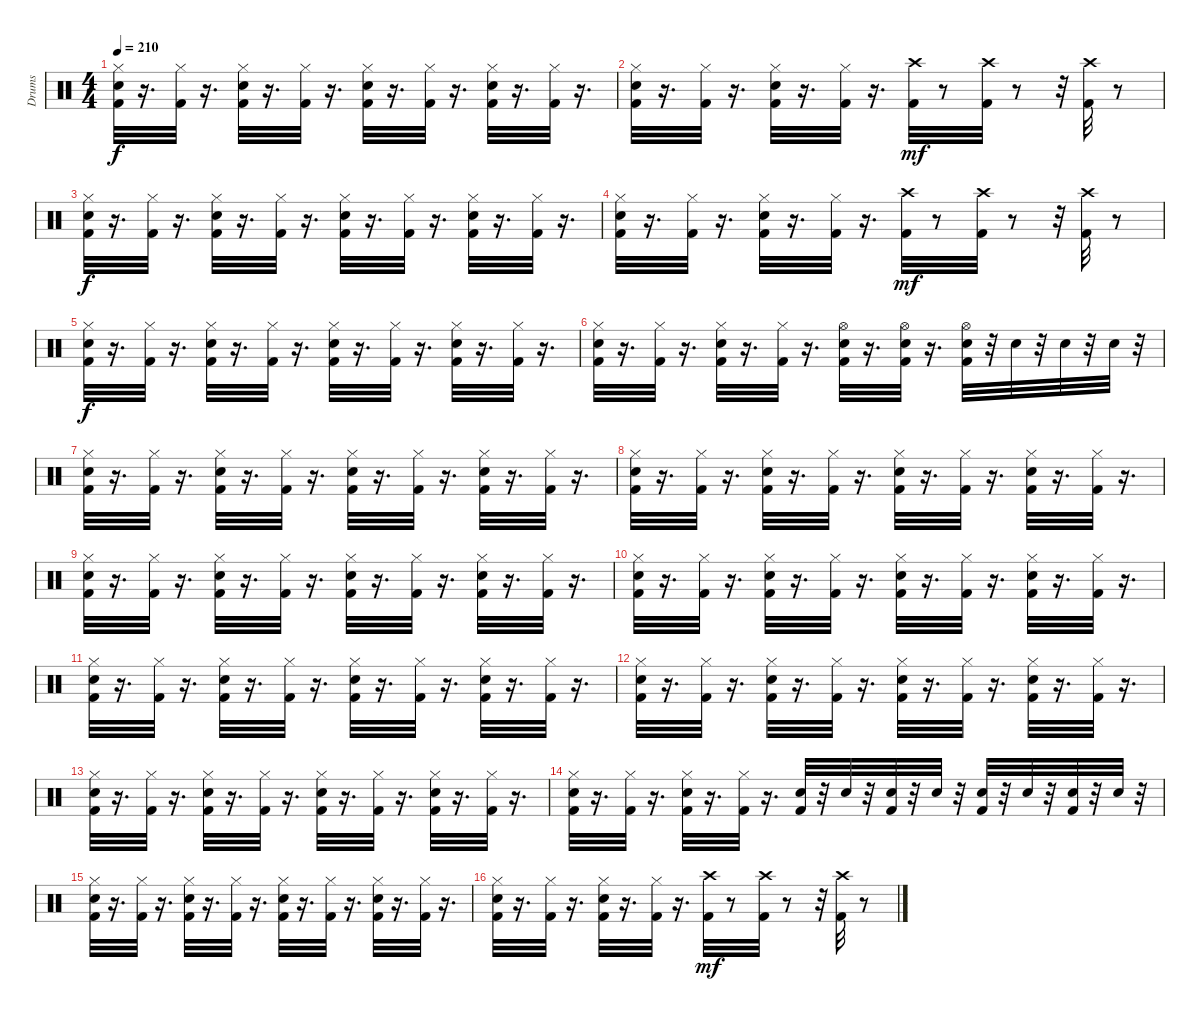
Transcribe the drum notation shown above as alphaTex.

\track ("Drums" "Drums") {instrument percussion}
\staff {score}
\articulation defaults
\ts (4 4)
\tempo 210
\clef neutral
\ks c
("Kick (hit) 2" "Snare (hit) 2" "Hi-Hat (closed)").32{dy f} r.16{d} ("Kick (hit) 2" "Hi-Hat (closed)").32 r.16{d} ("Kick (hit) 2" "Snare (hit) 2" "Hi-Hat (closed)").32 r.16{d} ("Kick (hit) 2" "Hi-Hat (closed)").32 r.16{d} ("Kick (hit) 2" "Snare (hit) 2" "Hi-Hat (closed)").32 r.16{d} ("Kick (hit) 2" "Hi-Hat (closed)").32 r.16{d} ("Kick (hit) 2" "Snare (hit) 2" "Hi-Hat (closed)").32 r.16{d} ("Kick (hit) 2" "Hi-Hat (closed)").32 r.16{d} |
("Kick (hit) 2" "Snare (hit) 2" "Hi-Hat (closed)").32 r.16{d} ("Kick (hit) 2" "Hi-Hat (closed)").32 r.16{d} ("Kick (hit) 2" "Snare (hit) 2" "Hi-Hat (closed)").32 r.16{d} ("Kick (hit) 2" "Hi-Hat (closed)").32 r.16{d} ("Kick (hit) 2" "Crash high (hit)").32{dy mf} r.8 ("Kick (hit) 2" "Crash high (hit)").32 r.8 r.32 ("Kick (hit) 2" "Crash high (hit)").32 r.8 |
("Kick (hit) 2" "Snare (hit) 2" "Hi-Hat (closed)").32{dy f} r.16{d} ("Kick (hit) 2" "Hi-Hat (closed)").32 r.16{d} ("Kick (hit) 2" "Snare (hit) 2" "Hi-Hat (closed)").32 r.16{d} ("Kick (hit) 2" "Hi-Hat (closed)").32 r.16{d} ("Kick (hit) 2" "Snare (hit) 2" "Hi-Hat (closed)").32 r.16{d} ("Kick (hit) 2" "Hi-Hat (closed)").32 r.16{d} ("Kick (hit) 2" "Snare (hit) 2" "Hi-Hat (closed)").32 r.16{d} ("Kick (hit) 2" "Hi-Hat (closed)").32 r.16{d} |
("Kick (hit) 2" "Snare (hit) 2" "Hi-Hat (closed)").32 r.16{d} ("Kick (hit) 2" "Hi-Hat (closed)").32 r.16{d} ("Kick (hit) 2" "Snare (hit) 2" "Hi-Hat (closed)").32 r.16{d} ("Kick (hit) 2" "Hi-Hat (closed)").32 r.16{d} ("Kick (hit) 2" "Crash high (hit)").32{dy mf} r.8 ("Kick (hit) 2" "Crash high (hit)").32 r.8 r.32 ("Kick (hit) 2" "Crash high (hit)").32 r.8 |
("Kick (hit) 2" "Snare (hit) 2" "Hi-Hat (closed)").32{dy f} r.16{d} ("Kick (hit) 2" "Hi-Hat (closed)").32 r.16{d} ("Kick (hit) 2" "Snare (hit) 2" "Hi-Hat (closed)").32 r.16{d} ("Kick (hit) 2" "Hi-Hat (closed)").32 r.16{d} ("Kick (hit) 2" "Snare (hit) 2" "Hi-Hat (closed)").32 r.16{d} ("Kick (hit) 2" "Hi-Hat (closed)").32 r.16{d} ("Kick (hit) 2" "Snare (hit) 2" "Hi-Hat (closed)").32 r.16{d} ("Kick (hit) 2" "Hi-Hat (closed)").32 r.16{d} |
("Kick (hit) 2" "Snare (hit) 2" "Hi-Hat (closed)").32 r.16{d} ("Kick (hit) 2" "Hi-Hat (closed)").32 r.16{d} ("Kick (hit) 2" "Snare (hit) 2" "Hi-Hat (closed)").32 r.16{d} ("Kick (hit) 2" "Hi-Hat (closed)").32 r.16{d} ("Kick (hit) 2" "Snare (hit) 2" "Hi-Hat (open)").32 r.16{d} ("Kick (hit) 2" "Snare (hit) 2" "Hi-Hat (open)").32 r.16{d} ("Kick (hit) 2" "Snare (hit) 2" "Hi-Hat (open)").32 r.32 "Snare (hit) 2".32 r.32 "Snare (hit) 2".32 r.32 "Snare (hit) 2".32 r.32 |
("Kick (hit) 2" "Snare (hit) 2" "Hi-Hat (closed)").32 r.16{d} ("Kick (hit) 2" "Hi-Hat (closed)").32 r.16{d} ("Kick (hit) 2" "Snare (hit) 2" "Hi-Hat (closed)").32 r.16{d} ("Kick (hit) 2" "Hi-Hat (closed)").32 r.16{d} ("Kick (hit) 2" "Snare (hit) 2" "Hi-Hat (closed)").32 r.16{d} ("Kick (hit) 2" "Hi-Hat (closed)").32 r.16{d} ("Kick (hit) 2" "Snare (hit) 2" "Hi-Hat (closed)").32 r.16{d} ("Kick (hit) 2" "Hi-Hat (closed)").32 r.16{d} |
("Kick (hit) 2" "Snare (hit) 2" "Hi-Hat (closed)").32 r.16{d} ("Kick (hit) 2" "Hi-Hat (closed)").32 r.16{d} ("Kick (hit) 2" "Snare (hit) 2" "Hi-Hat (closed)").32 r.16{d} ("Kick (hit) 2" "Hi-Hat (closed)").32 r.16{d} ("Kick (hit) 2" "Snare (hit) 2" "Hi-Hat (closed)").32 r.16{d} ("Kick (hit) 2" "Hi-Hat (closed)").32 r.16{d} ("Kick (hit) 2" "Snare (hit) 2" "Hi-Hat (closed)").32 r.16{d} ("Kick (hit) 2" "Hi-Hat (closed)").32 r.16{d} |
("Kick (hit) 2" "Snare (hit) 2" "Hi-Hat (closed)").32 r.16{d} ("Kick (hit) 2" "Hi-Hat (closed)").32 r.16{d} ("Kick (hit) 2" "Snare (hit) 2" "Hi-Hat (closed)").32 r.16{d} ("Kick (hit) 2" "Hi-Hat (closed)").32 r.16{d} ("Kick (hit) 2" "Snare (hit) 2" "Hi-Hat (closed)").32 r.16{d} ("Kick (hit) 2" "Hi-Hat (closed)").32 r.16{d} ("Kick (hit) 2" "Snare (hit) 2" "Hi-Hat (closed)").32 r.16{d} ("Kick (hit) 2" "Hi-Hat (closed)").32 r.16{d} |
("Kick (hit) 2" "Snare (hit) 2" "Hi-Hat (closed)").32 r.16{d} ("Kick (hit) 2" "Hi-Hat (closed)").32 r.16{d} ("Kick (hit) 2" "Snare (hit) 2" "Hi-Hat (closed)").32 r.16{d} ("Kick (hit) 2" "Hi-Hat (closed)").32 r.16{d} ("Kick (hit) 2" "Snare (hit) 2" "Hi-Hat (closed)").32 r.16{d} ("Kick (hit) 2" "Hi-Hat (closed)").32 r.16{d} ("Kick (hit) 2" "Snare (hit) 2" "Hi-Hat (closed)").32 r.16{d} ("Kick (hit) 2" "Hi-Hat (closed)").32 r.16{d} |
("Kick (hit) 2" "Snare (hit) 2" "Hi-Hat (closed)").32 r.16{d} ("Kick (hit) 2" "Hi-Hat (closed)").32 r.16{d} ("Kick (hit) 2" "Snare (hit) 2" "Hi-Hat (closed)").32 r.16{d} ("Kick (hit) 2" "Hi-Hat (closed)").32 r.16{d} ("Kick (hit) 2" "Snare (hit) 2" "Hi-Hat (closed)").32 r.16{d} ("Kick (hit) 2" "Hi-Hat (closed)").32 r.16{d} ("Kick (hit) 2" "Snare (hit) 2" "Hi-Hat (closed)").32 r.16{d} ("Kick (hit) 2" "Hi-Hat (closed)").32 r.16{d} |
("Kick (hit) 2" "Snare (hit) 2" "Hi-Hat (closed)").32 r.16{d} ("Kick (hit) 2" "Hi-Hat (closed)").32 r.16{d} ("Kick (hit) 2" "Snare (hit) 2" "Hi-Hat (closed)").32 r.16{d} ("Kick (hit) 2" "Hi-Hat (closed)").32 r.16{d} ("Kick (hit) 2" "Snare (hit) 2" "Hi-Hat (closed)").32 r.16{d} ("Kick (hit) 2" "Hi-Hat (closed)").32 r.16{d} ("Kick (hit) 2" "Snare (hit) 2" "Hi-Hat (closed)").32 r.16{d} ("Kick (hit) 2" "Hi-Hat (closed)").32 r.16{d} |
("Kick (hit) 2" "Snare (hit) 2" "Hi-Hat (closed)").32 r.16{d} ("Kick (hit) 2" "Hi-Hat (closed)").32 r.16{d} ("Kick (hit) 2" "Snare (hit) 2" "Hi-Hat (closed)").32 r.16{d} ("Kick (hit) 2" "Hi-Hat (closed)").32 r.16{d} ("Kick (hit) 2" "Snare (hit) 2" "Hi-Hat (closed)").32 r.16{d} ("Kick (hit) 2" "Hi-Hat (closed)").32 r.16{d} ("Kick (hit) 2" "Snare (hit) 2" "Hi-Hat (closed)").32 r.16{d} ("Kick (hit) 2" "Hi-Hat (closed)").32 r.16{d} |
("Kick (hit) 2" "Snare (hit) 2" "Hi-Hat (closed)").32 r.16{d} ("Kick (hit) 2" "Hi-Hat (closed)").32 r.16{d} ("Kick (hit) 2" "Snare (hit) 2" "Hi-Hat (closed)").32 r.16{d} ("Kick (hit) 2" "Hi-Hat (closed)").32 r.16{d} ("Kick (hit) 2" "Snare (hit) 2").32 r.32 "Snare (hit) 2".32 r.32 ("Kick (hit) 2" "Snare (hit) 2").32 r.32 "Snare (hit) 2".32 r.32 ("Kick (hit) 2" "Snare (hit) 2").32 r.32 "Snare (hit) 2".32 r.32 ("Kick (hit) 2" "Snare (hit) 2").32 r.32 "Snare (hit) 2".32 r.32 |
("Kick (hit) 2" "Snare (hit) 2" "Hi-Hat (closed)").32 r.16{d} ("Kick (hit) 2" "Hi-Hat (closed)").32 r.16{d} ("Kick (hit) 2" "Snare (hit) 2" "Hi-Hat (closed)").32 r.16{d} ("Kick (hit) 2" "Hi-Hat (closed)").32 r.16{d} ("Kick (hit) 2" "Snare (hit) 2" "Hi-Hat (closed)").32 r.16{d} ("Kick (hit) 2" "Hi-Hat (closed)").32 r.16{d} ("Kick (hit) 2" "Snare (hit) 2" "Hi-Hat (closed)").32 r.16{d} ("Kick (hit) 2" "Hi-Hat (closed)").32 r.16{d} |
("Kick (hit) 2" "Snare (hit) 2" "Hi-Hat (closed)").32 r.16{d} ("Kick (hit) 2" "Hi-Hat (closed)").32 r.16{d} ("Kick (hit) 2" "Snare (hit) 2" "Hi-Hat (closed)").32 r.16{d} ("Kick (hit) 2" "Hi-Hat (closed)").32 r.16{d} ("Kick (hit) 2" "Crash high (hit)").32{dy mf} r.8 ("Kick (hit) 2" "Crash high (hit)").32 r.8 r.32 ("Kick (hit) 2" "Crash high (hit)").32 r.8
